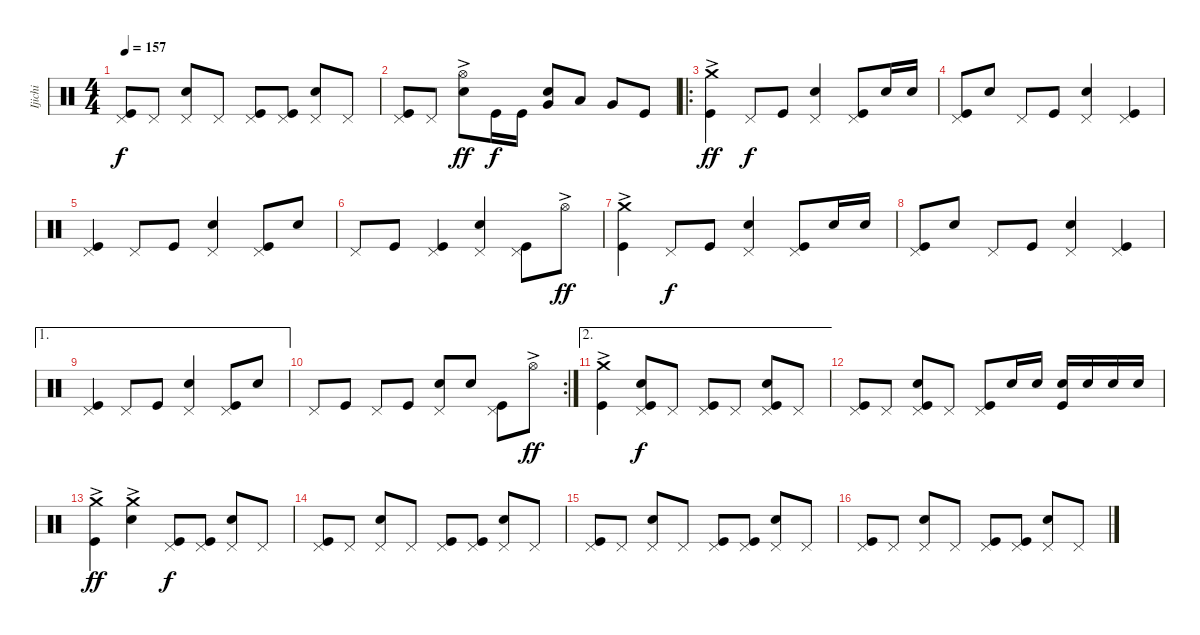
\track ("Ijichi" "Ijichi") {instrument percussion}
\staff {score}
\articulation defaults
\ts (4 4)
\tempo 157
\clef neutral
\ks c
("Pedal Hi-Hat (hit)" "Kick (hit)").8{dy f} "Pedal Hi-Hat (hit)".8 ("Pedal Hi-Hat (hit)" "Snare (hit) 2").8 "Pedal Hi-Hat (hit)".8 ("Pedal Hi-Hat (hit)" "Kick (hit)").8 ("Pedal Hi-Hat (hit)" "Kick (hit)").8 ("Pedal Hi-Hat (hit)" "Snare (hit) 2").8 "Pedal Hi-Hat (hit)".8 |
("Pedal Hi-Hat (hit)" "Kick (hit)").8 "Pedal Hi-Hat (hit)".8 ("Hi-Hat (open)"{ac} "Snare (hit) 2").8{dy ff} "Kick (hit)".16{dy f} "Kick (hit)".16 ("Snare (hit) 2" "Very Low Tom (hit)").8 "Low Tom (hit)".8 "Very Low Tom (hit)".8 "Kick (hit)".8 |
\ro
("Crash medium (hit)"{ac} "Kick (hit)").4{dy ff} "Pedal Hi-Hat (hit)".8{dy f} "Kick (hit)".8 ("Pedal Hi-Hat (hit)" "Snare (hit) 2").4 ("Pedal Hi-Hat (hit)" "Kick (hit)").8 "Snare (hit) 2".16 "Snare (hit) 2".16 |
("Pedal Hi-Hat (hit)" "Kick (hit)").8 "Snare (hit) 2".8 "Pedal Hi-Hat (hit)".8 "Kick (hit)".8 ("Pedal Hi-Hat (hit)" "Snare (hit) 2").4 ("Pedal Hi-Hat (hit)" "Kick (hit)").4 |
("Pedal Hi-Hat (hit)" "Kick (hit)").4 "Pedal Hi-Hat (hit)".8 "Kick (hit)".8 ("Pedal Hi-Hat (hit)" "Snare (hit) 2").4 ("Pedal Hi-Hat (hit)" "Kick (hit)").8 "Snare (hit) 2".8 |
"Pedal Hi-Hat (hit)".8 "Kick (hit)".8 ("Pedal Hi-Hat (hit)" "Kick (hit)").4 ("Pedal Hi-Hat (hit)" "Snare (hit) 2").4 ("Pedal Hi-Hat (hit)" "Kick (hit)").8 "Hi-Hat (open)"{ac}.8{dy ff} |
("Crash medium (hit)"{ac} "Kick (hit)").4 "Pedal Hi-Hat (hit)".8{dy f} "Kick (hit)".8 ("Pedal Hi-Hat (hit)" "Snare (hit) 2").4 ("Pedal Hi-Hat (hit)" "Kick (hit)").8 "Snare (hit) 2".16 "Snare (hit) 2".16 |
("Pedal Hi-Hat (hit)" "Kick (hit)").8 "Snare (hit) 2".8 "Pedal Hi-Hat (hit)".8 "Kick (hit)".8 ("Pedal Hi-Hat (hit)" "Snare (hit) 2").4 ("Pedal Hi-Hat (hit)" "Kick (hit)").4 |
\ae 1
("Pedal Hi-Hat (hit)" "Kick (hit)").4 "Pedal Hi-Hat (hit)".8 "Kick (hit)".8 ("Pedal Hi-Hat (hit)" "Snare (hit) 2").4 ("Pedal Hi-Hat (hit)" "Kick (hit)").8 "Snare (hit) 2".8 |
\rc 2 "Pedal Hi-Hat (hit)".8 "Kick (hit)".8 "Pedal Hi-Hat (hit)".8 "Kick (hit)".8
("Pedal Hi-Hat (hit)" "Snare (hit) 2").8 "Snare (hit) 2".8 ("Pedal Hi-Hat (hit)" "Kick (hit)").8 "Hi-Hat (open)"{ac}.8{dy ff} |
\ae 2
("Crash medium (hit)"{ac} "Kick (hit)").4 ("Pedal Hi-Hat (hit)" "Snare (hit) 2" "Kick (hit)").8{dy f} "Pedal Hi-Hat (hit)".8 ("Pedal Hi-Hat (hit)" "Kick (hit)").8 "Pedal Hi-Hat (hit)".8 ("Pedal Hi-Hat (hit)" "Snare (hit) 2" "Kick (hit)").8 "Pedal Hi-Hat (hit)".8 |
("Pedal Hi-Hat (hit)" "Kick (hit)").8 "Pedal Hi-Hat (hit)".8 ("Pedal Hi-Hat (hit)" "Snare (hit) 2" "Kick (hit)").8 "Pedal Hi-Hat (hit)".8 ("Pedal Hi-Hat (hit)" "Kick (hit)").8 "Snare (hit) 2".16 "Snare (hit) 2".16 ("Snare (hit) 2" "Kick (hit)").16 "Snare (hit) 2".16 "Snare (hit) 2".16 "Snare (hit) 2".16 |
("Crash medium (hit)"{ac} "Kick (hit)").4{dy ff} ("Crash medium (hit)"{ac} "Snare (hit) 2").4 ("Pedal Hi-Hat (hit)" "Kick (hit)").8{dy f} ("Pedal Hi-Hat (hit)" "Kick (hit)").8 ("Pedal Hi-Hat (hit)" "Snare (hit) 2").8 "Pedal Hi-Hat (hit)".8 |
("Pedal Hi-Hat (hit)" "Kick (hit)").8 "Pedal Hi-Hat (hit)".8 ("Pedal Hi-Hat (hit)" "Snare (hit) 2").8 "Pedal Hi-Hat (hit)".8 ("Pedal Hi-Hat (hit)" "Kick (hit)").8 ("Pedal Hi-Hat (hit)" "Kick (hit)").8 ("Pedal Hi-Hat (hit)" "Snare (hit) 2").8 "Pedal Hi-Hat (hit)".8 |
("Pedal Hi-Hat (hit)" "Kick (hit)").8 "Pedal Hi-Hat (hit)".8 ("Pedal Hi-Hat (hit)" "Snare (hit) 2").8 "Pedal Hi-Hat (hit)".8 ("Pedal Hi-Hat (hit)" "Kick (hit)").8 ("Pedal Hi-Hat (hit)" "Kick (hit)").8 ("Pedal Hi-Hat (hit)" "Snare (hit) 2").8 "Pedal Hi-Hat (hit)".8 |
("Pedal Hi-Hat (hit)" "Kick (hit)").8 "Pedal Hi-Hat (hit)".8 ("Pedal Hi-Hat (hit)" "Snare (hit) 2").8 "Pedal Hi-Hat (hit)".8 ("Pedal Hi-Hat (hit)" "Kick (hit)").8 ("Pedal Hi-Hat (hit)" "Kick (hit)").8 ("Pedal Hi-Hat (hit)" "Snare (hit) 2").8 "Pedal Hi-Hat (hit)".8
